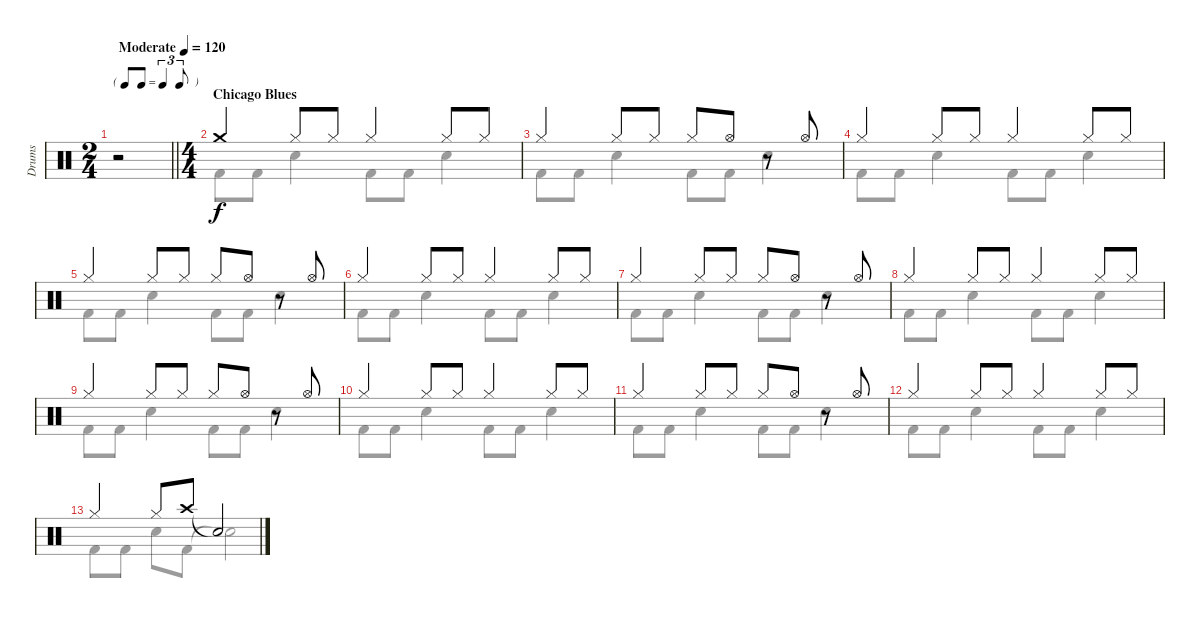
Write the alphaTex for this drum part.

\track ("Drums" "Drums") {instrument percussion}
\staff {score}
\articulation defaults
\voice
\ts (2 4)
\tf triplet8th
\tempo (120 "Moderate")
\clef neutral
\barLineRight lightlight
\ks c
r.2{dy f} |
\ts (4 4)
\section ("" "Chicago Blues")
"Crash medium (hit)".4{volume 6 balance 8} "Hi-Hat (closed)".8 "Hi-Hat (closed)".8 "Hi-Hat (closed)".4 "Hi-Hat (closed)".8 "Hi-Hat (closed)".8 |
"Hi-Hat (closed)".4 "Hi-Hat (closed)".8 "Hi-Hat (closed)".8 "Hi-Hat (closed)".8 "Hi-Hat (open)".8 r.8 "Hi-Hat (open)".8 |
"Hi-Hat (closed)".4 "Hi-Hat (closed)".8 "Hi-Hat (closed)".8 "Hi-Hat (closed)".4 "Hi-Hat (closed)".8 "Hi-Hat (closed)".8 |
"Hi-Hat (closed)".4 "Hi-Hat (closed)".8 "Hi-Hat (closed)".8 "Hi-Hat (closed)".8 "Hi-Hat (open)".8 r.8 "Hi-Hat (open)".8 |
"Hi-Hat (closed)".4 "Hi-Hat (closed)".8 "Hi-Hat (closed)".8 "Hi-Hat (closed)".4 "Hi-Hat (closed)".8 "Hi-Hat (closed)".8 |
"Hi-Hat (closed)".4 "Hi-Hat (closed)".8 "Hi-Hat (closed)".8 "Hi-Hat (closed)".8 "Hi-Hat (open)".8 r.8 "Hi-Hat (open)".8 |
"Hi-Hat (closed)".4 "Hi-Hat (closed)".8 "Hi-Hat (closed)".8 "Hi-Hat (closed)".4 "Hi-Hat (closed)".8 "Hi-Hat (closed)".8 |
"Hi-Hat (closed)".4 "Hi-Hat (closed)".8 "Hi-Hat (closed)".8 "Hi-Hat (closed)".8 "Hi-Hat (open)".8 r.8 "Hi-Hat (open)".8 |
"Hi-Hat (closed)".4 "Hi-Hat (closed)".8 "Hi-Hat (closed)".8 "Hi-Hat (closed)".4 "Hi-Hat (closed)".8 "Hi-Hat (closed)".8 |
"Hi-Hat (closed)".4 "Hi-Hat (closed)".8 "Hi-Hat (closed)".8 "Hi-Hat (closed)".8 "Hi-Hat (open)".8 r.8 "Hi-Hat (open)".8 |
"Hi-Hat (closed)".4 "Hi-Hat (closed)".8 "Hi-Hat (closed)".8 "Hi-Hat (closed)".4 "Hi-Hat (closed)".8 "Hi-Hat (closed)".8 |
"Hi-Hat (closed)".4 "Hi-Hat (closed)".8 "Crash high (hit)".8 "Snare (hit)"{t}.2
\voice
\clef neutral
\ottava regular
\simile none
\barLineRight lightlight
\ks c
|
"Kick (hit) 2".8 "Kick (hit) 2".8 "Electric Snare (hit)".4 "Kick (hit) 2".8 "Kick (hit) 2".8 "Electric Snare (hit)".4 |
"Kick (hit) 2".8 "Kick (hit) 2".8 "Electric Snare (hit)".4 "Kick (hit) 2".8 "Kick (hit) 2".8 "Electric Snare (hit)".4 |
"Kick (hit) 2".8 "Kick (hit) 2".8 "Electric Snare (hit)".4 "Kick (hit) 2".8 "Kick (hit) 2".8 "Electric Snare (hit)".4 |
"Kick (hit) 2".8 "Kick (hit) 2".8 "Electric Snare (hit)".4 "Kick (hit) 2".8 "Kick (hit) 2".8 "Electric Snare (hit)".4 |
"Kick (hit) 2".8 "Kick (hit) 2".8 "Electric Snare (hit)".4 "Kick (hit) 2".8 "Kick (hit) 2".8 "Electric Snare (hit)".4 |
"Kick (hit) 2".8 "Kick (hit) 2".8 "Electric Snare (hit)".4 "Kick (hit) 2".8 "Kick (hit) 2".8 "Electric Snare (hit)".4 |
"Kick (hit) 2".8 "Kick (hit) 2".8 "Electric Snare (hit)".4 "Kick (hit) 2".8 "Kick (hit) 2".8 "Electric Snare (hit)".4 |
"Kick (hit) 2".8 "Kick (hit) 2".8 "Electric Snare (hit)".4 "Kick (hit) 2".8 "Kick (hit) 2".8 "Electric Snare (hit)".4 |
"Kick (hit) 2".8 "Kick (hit) 2".8 "Electric Snare (hit)".4 "Kick (hit) 2".8 "Kick (hit) 2".8 "Electric Snare (hit)".4 |
"Kick (hit) 2".8 "Kick (hit) 2".8 "Electric Snare (hit)".4 "Kick (hit) 2".8 "Kick (hit) 2".8 "Electric Snare (hit)".4 |
"Kick (hit) 2".8 "Kick (hit) 2".8 "Electric Snare (hit)".4 "Kick (hit) 2".8 "Kick (hit) 2".8 "Electric Snare (hit)".4 |
"Kick (hit) 2".8 "Kick (hit) 2".8 "Electric Snare (hit)".8 "Kick (hit) 2".8 "Snare (hit)"{t}.2
